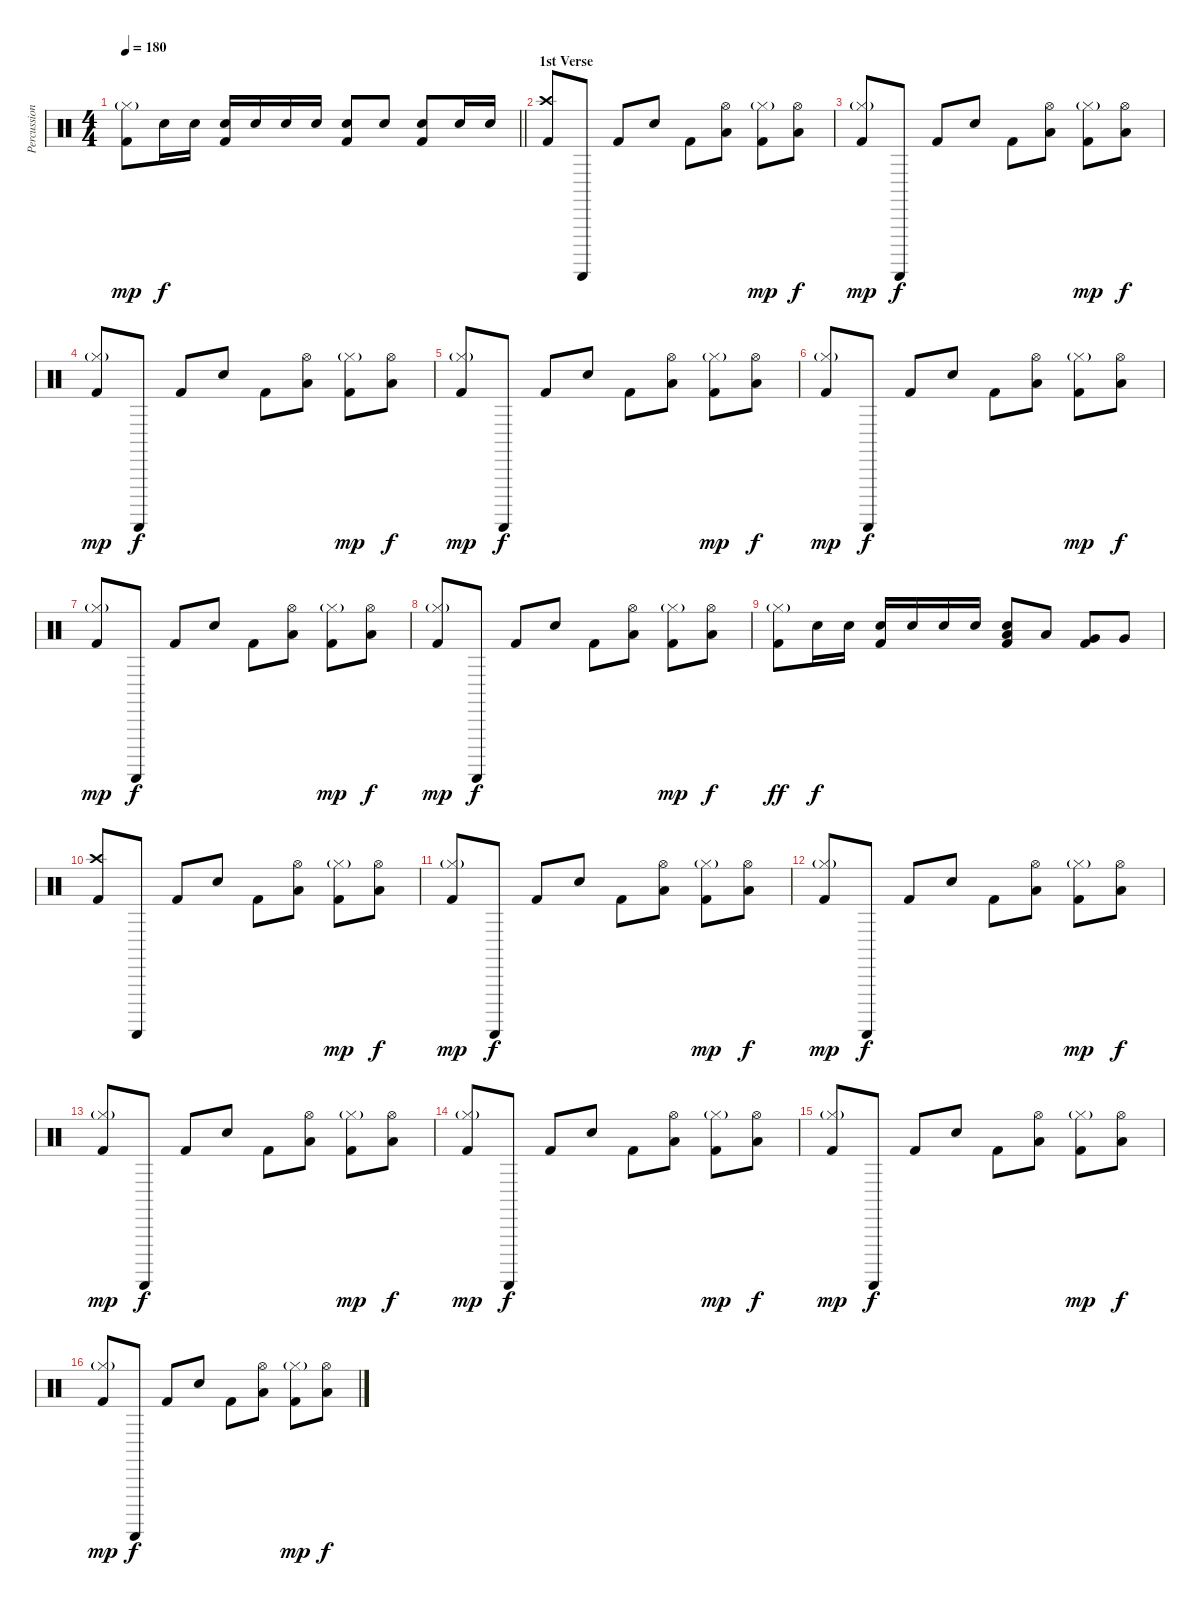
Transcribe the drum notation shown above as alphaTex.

\track ("Percussion" "Percussion") {instrument percussion}
\staff {score}
\articulation defaults
\ts (4 4)
\tempo 180
\clef neutral
\barLineRight lightlight
\ks c
("Hi-Hat (closed)"{g} "Kick (hit) 2").8{dy mp} "Snare (hit) 2".16{dy f} "Snare (hit) 2".16 ("Snare (hit) 2" "Kick (hit) 2").16 "Snare (hit) 2".16 "Snare (hit) 2".16 "Snare (hit) 2".16 ("Snare (hit) 2" "Kick (hit) 2").8 "Snare (hit) 2".8 ("Snare (hit) 2" "Kick (hit) 2").8 "Snare (hit) 2".16 "Snare (hit) 2".16 |
\section ("" "1st Verse")
("Crash high (hit)" "Kick (hit) 2").8 "Guiro (scrap-return)".8 "Kick (hit) 2".8 "Snare (hit) 2".8 "Kick (hit) 2".8 ("Hi-Hat (open)" "Low Tom (hit)").8 ("Hi-Hat (closed)"{g} "Kick (hit) 2").8{dy mp} ("Hi-Hat (open)" "Low Tom (hit)").8{dy f} |
("Hi-Hat (closed)"{g} "Kick (hit) 2").8{dy mp} "Guiro (scrap-return)".8{dy f} "Kick (hit) 2".8 "Snare (hit) 2".8 "Kick (hit) 2".8 ("Hi-Hat (open)" "Low Tom (hit)").8 ("Hi-Hat (closed)"{g} "Kick (hit) 2").8{dy mp} ("Hi-Hat (open)" "Low Tom (hit)").8{dy f} |
("Hi-Hat (closed)"{g} "Kick (hit) 2").8{dy mp} "Guiro (scrap-return)".8{dy f} "Kick (hit) 2".8 "Snare (hit) 2".8 "Kick (hit) 2".8 ("Hi-Hat (open)" "Low Tom (hit)").8 ("Hi-Hat (closed)"{g} "Kick (hit) 2").8{dy mp} ("Hi-Hat (open)" "Low Tom (hit)").8{dy f} |
("Hi-Hat (closed)"{g} "Kick (hit) 2").8{dy mp} "Guiro (scrap-return)".8{dy f} "Kick (hit) 2".8 "Snare (hit) 2".8 "Kick (hit) 2".8 ("Hi-Hat (open)" "Low Tom (hit)").8 ("Hi-Hat (closed)"{g} "Kick (hit) 2").8{dy mp} ("Hi-Hat (open)" "Low Tom (hit)").8{dy f} |
("Hi-Hat (closed)"{g} "Kick (hit) 2").8{dy mp} "Guiro (scrap-return)".8{dy f} "Kick (hit) 2".8 "Snare (hit) 2".8 "Kick (hit) 2".8 ("Hi-Hat (open)" "Low Tom (hit)").8 ("Hi-Hat (closed)"{g} "Kick (hit) 2").8{dy mp} ("Hi-Hat (open)" "Low Tom (hit)").8{dy f} |
("Hi-Hat (closed)"{g} "Kick (hit) 2").8{dy mp} "Guiro (scrap-return)".8{dy f} "Kick (hit) 2".8 "Snare (hit) 2".8 "Kick (hit) 2".8 ("Hi-Hat (open)" "Low Tom (hit)").8 ("Hi-Hat (closed)"{g} "Kick (hit) 2").8{dy mp} ("Hi-Hat (open)" "Low Tom (hit)").8{dy f} |
("Hi-Hat (closed)"{g} "Kick (hit) 2").8{dy mp} "Guiro (scrap-return)".8{dy f} "Kick (hit) 2".8 "Snare (hit) 2".8 "Kick (hit) 2".8 ("Hi-Hat (open)" "Low Tom (hit)").8 ("Hi-Hat (closed)"{g} "Kick (hit) 2").8{dy mp} ("Hi-Hat (open)" "Low Tom (hit)").8{dy f} |
("Hi-Hat (closed)"{g} "Kick (hit) 2").8{dy ff} "Snare (hit) 2".16{dy f} "Snare (hit) 2".16 ("Snare (hit) 2" "Kick (hit) 2").16 "Snare (hit) 2".16 "Snare (hit) 2".16 "Snare (hit) 2".16 ("Low Tom (hit)" "Snare (hit) 2" "Kick (hit) 2").8 "Low Tom (hit)".8 ("Very Low Tom (hit)" "Kick (hit) 2").8 "Very Low Tom (hit)".8 |
("Crash high (hit)" "Kick (hit) 2").8 "Guiro (scrap-return)".8 "Kick (hit) 2".8 "Snare (hit) 2".8 "Kick (hit) 2".8 ("Hi-Hat (open)" "Low Tom (hit)").8 ("Hi-Hat (closed)"{g} "Kick (hit) 2").8{dy mp} ("Hi-Hat (open)" "Low Tom (hit)").8{dy f} |
("Hi-Hat (closed)"{g} "Kick (hit) 2").8{dy mp} "Guiro (scrap-return)".8{dy f} "Kick (hit) 2".8 "Snare (hit) 2".8 "Kick (hit) 2".8 ("Hi-Hat (open)" "Low Tom (hit)").8 ("Hi-Hat (closed)"{g} "Kick (hit) 2").8{dy mp} ("Hi-Hat (open)" "Low Tom (hit)").8{dy f} |
("Hi-Hat (closed)"{g} "Kick (hit) 2").8{dy mp} "Guiro (scrap-return)".8{dy f} "Kick (hit) 2".8 "Snare (hit) 2".8 "Kick (hit) 2".8 ("Hi-Hat (open)" "Low Tom (hit)").8 ("Hi-Hat (closed)"{g} "Kick (hit) 2").8{dy mp} ("Hi-Hat (open)" "Low Tom (hit)").8{dy f} |
("Hi-Hat (closed)"{g} "Kick (hit) 2").8{dy mp} "Guiro (scrap-return)".8{dy f} "Kick (hit) 2".8 "Snare (hit) 2".8 "Kick (hit) 2".8 ("Hi-Hat (open)" "Low Tom (hit)").8 ("Hi-Hat (closed)"{g} "Kick (hit) 2").8{dy mp} ("Hi-Hat (open)" "Low Tom (hit)").8{dy f} |
("Hi-Hat (closed)"{g} "Kick (hit) 2").8{dy mp} "Guiro (scrap-return)".8{dy f} "Kick (hit) 2".8 "Snare (hit) 2".8 "Kick (hit) 2".8 ("Hi-Hat (open)" "Low Tom (hit)").8 ("Hi-Hat (closed)"{g} "Kick (hit) 2").8{dy mp} ("Hi-Hat (open)" "Low Tom (hit)").8{dy f} |
("Hi-Hat (closed)"{g} "Kick (hit) 2").8{dy mp} "Guiro (scrap-return)".8{dy f} "Kick (hit) 2".8 "Snare (hit) 2".8 "Kick (hit) 2".8 ("Hi-Hat (open)" "Low Tom (hit)").8 ("Hi-Hat (closed)"{g} "Kick (hit) 2").8{dy mp} ("Hi-Hat (open)" "Low Tom (hit)").8{dy f} |
("Hi-Hat (closed)"{g} "Kick (hit) 2").8{dy mp} "Guiro (scrap-return)".8{dy f} "Kick (hit) 2".8 "Snare (hit) 2".8 "Kick (hit) 2".8 ("Hi-Hat (open)" "Low Tom (hit)").8 ("Hi-Hat (closed)"{g} "Kick (hit) 2").8{dy mp} ("Hi-Hat (open)" "Low Tom (hit)").8{dy f}
